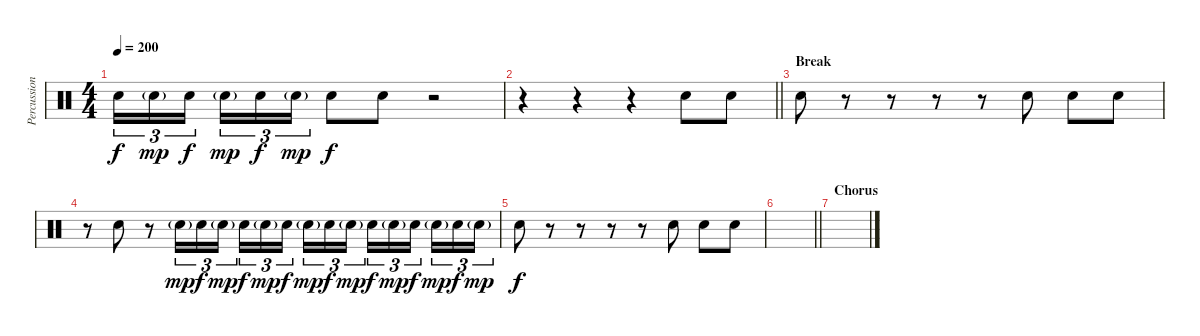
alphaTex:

\track ("Percussion" "Percussion") {instrument percussion}
\staff {score}
\articulation defaults
\ts (4 4)
\tempo 200
\clef neutral
\ks c "Snare (hit) 2".16{tu (3 2) dy f} "Snare (hit) 2"{g}.16{tu (3 2) dy mp} "Snare (hit) 2".16{tu (3 2) dy f beam splitsecondary} "Snare (hit) 2"{g}.16{tu (3 2) dy mp} "Snare (hit) 2".16{tu (3 2) dy f} "Snare (hit) 2"{g}.16{tu (3 2) dy mp} "Snare (hit) 2".8{dy f} "Snare (hit) 2".8
r.2 |
\barLineRight lightlight
r.4 r.4 r.4 "Snare (hit) 2".8 "Snare (hit) 2".8 |
\section ("" "Break")
"Snare (hit) 2".8 r.8 r.8 r.8 r.8 "Snare (hit) 2".8 "Snare (hit) 2".8 "Snare (hit) 2".8 |
r.8 "Snare (hit) 2".8 r.8 "Snare (hit) 2"{g}.16{tu (3 2) dy mp} "Snare (hit) 2".16{tu (3 2) dy f} "Snare (hit) 2"{g}.16{tu (3 2) dy mp} "Snare (hit) 2".16{tu (3 2) dy f} "Snare (hit) 2"{g}.16{tu (3 2) dy mp} "Snare (hit) 2".16{tu (3 2) dy f beam splitsecondary} "Snare (hit) 2"{g}.16{tu (3 2) dy mp} "Snare (hit) 2".16{tu (3 2) dy f} "Snare (hit) 2"{g}.16{tu (3 2) dy mp} "Snare (hit) 2".16{tu (3 2) dy f} "Snare (hit) 2"{g}.16{tu (3 2) dy mp} "Snare (hit) 2".16{tu (3 2) dy f beam splitsecondary} "Snare (hit) 2"{g}.16{tu (3 2) dy mp} "Snare (hit) 2".16{tu (3 2) dy f} "Snare (hit) 2"{g}.16{tu (3 2) dy mp} |
"Snare (hit) 2".8{dy f} r.8 r.8 r.8 r.8 "Snare (hit) 2".8 "Snare (hit) 2".8 "Snare (hit) 2".8 |
\barLineRight lightlight
|
\section ("" "Chorus")
